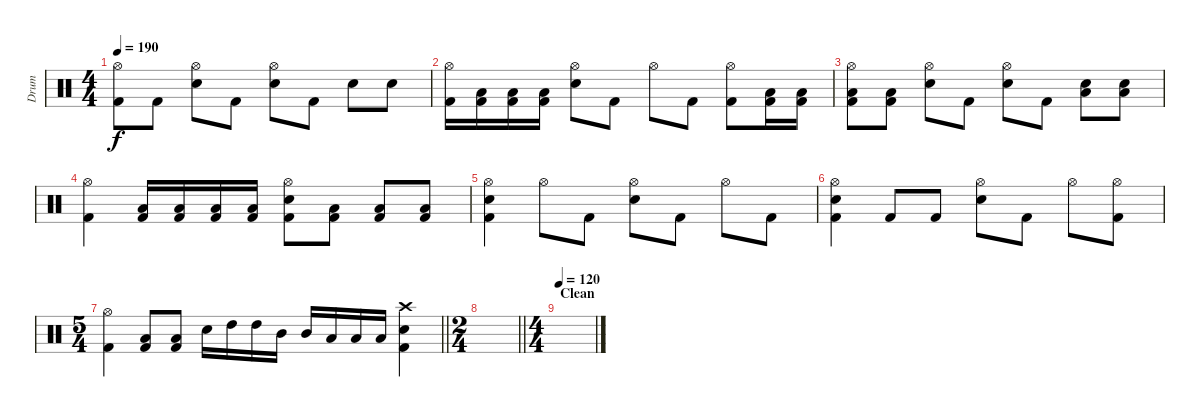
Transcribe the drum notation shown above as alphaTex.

\track ("Drum" "Drum") {instrument percussion}
\staff {score}
\articulation defaults
\ts (4 4)
\tempo 190
\clef neutral
\ks c
("Hi-Hat (open)" "Kick (hit) 2").8{dy f} "Kick (hit) 2".8 ("Hi-Hat (open)" "Snare (hit) 2").8 "Kick (hit) 2".8 ("Hi-Hat (open)" "Snare (hit) 2").8 "Kick (hit) 2".8 "Snare (hit) 2".8 "Snare (hit) 2".8 |
("Hi-Hat (open)" "Kick (hit) 2").16 ("Low Floor Tom (hit)" "Kick (hit) 2").16 ("Low Floor Tom (hit)" "Kick (hit) 2").16 ("Low Floor Tom (hit)" "Kick (hit) 2").16 ("Hi-Hat (open)" "Snare (hit) 2").8 "Kick (hit) 2".8 "Hi-Hat (open)".8 "Kick (hit) 2".8 ("Hi-Hat (open)" "Kick (hit) 2").8 ("Low Floor Tom (hit)" "Kick (hit) 2").16 ("Low Floor Tom (hit)" "Kick (hit) 2").16 |
("Hi-Hat (open)" "Low Floor Tom (hit)" "Kick (hit) 2").8 ("Low Floor Tom (hit)" "Kick (hit) 2").8 ("Hi-Hat (open)" "Snare (hit) 2").8 "Kick (hit) 2".8 ("Hi-Hat (open)" "Snare (hit) 2").8 "Kick (hit) 2".8 ("Snare (hit) 2" "Low Floor Tom (hit)").8 ("Snare (hit) 2" "Low Floor Tom (hit)").8 |
("Hi-Hat (open)" "Kick (hit) 2").4 ("Low Floor Tom (hit)" "Kick (hit) 2").16 ("Low Floor Tom (hit)" "Kick (hit) 2").16 ("Low Floor Tom (hit)" "Kick (hit) 2").16 ("Low Floor Tom (hit)" "Kick (hit) 2").16 ("Hi-Hat (open)" "Snare (hit) 2" "Kick (hit) 2").8 ("Low Floor Tom (hit)" "Kick (hit) 2").8 ("Low Tom (hit)" "Kick (hit) 2").8 ("Low Floor Tom (hit)" "Kick (hit) 2").8 |
("Hi-Hat (open)" "Snare (hit) 2" "Kick (hit) 2").4 "Hi-Hat (open)".8 "Kick (hit) 2".8 ("Hi-Hat (open)" "Snare (hit) 2").8 "Kick (hit) 2".8 "Hi-Hat (open)".8 "Kick (hit) 2".8 |
("Hi-Hat (open)" "Snare (hit) 2" "Kick (hit) 2").4 "Kick (hit) 2".8 "Kick (hit) 2".8 ("Hi-Hat (open)" "Snare (hit) 2").8 "Kick (hit) 2".8 "Hi-Hat (open)".8 ("Hi-Hat (open)" "Kick (hit) 2").8 |
\ts (5 4)
\barLineRight lightlight
("Hi-Hat (open)" "Kick (hit) 2").4 ("Low Floor Tom (hit)" "Kick (hit) 2").8 ("Low Floor Tom (hit)" "Kick (hit) 2").8 "Snare (hit) 2".16 "High Tom (hit)".16 "High Tom (hit)".16 "Mid Tom (hit)".16 "Mid Tom (hit)".16 "Low Tom (hit)".16 "Low Tom (hit)".16 "Low Tom (hit)".16 ("Crash high (hit)" "Snare (hit) 2" "Kick (hit) 2").4 |
\ts (2 4)
\barLineRight lightlight
|
\ts (4 4)
\section ("" "Clean")
\tempo 120
